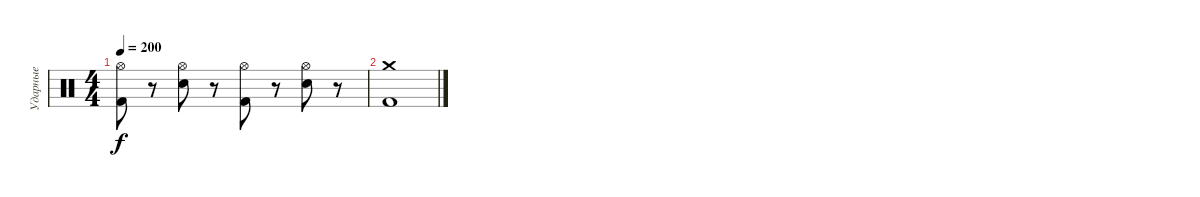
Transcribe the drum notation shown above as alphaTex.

\track ("Ударные" "Ударные") {instrument percussion}
\staff {score}
\articulation defaults
\ts (4 4)
\tempo 200
\clef neutral
\ks c
("Hi-Hat (open)" "Kick (hit) 2").8{dy f} r.8 ("Hi-Hat (open)" "Snare (hit) 2").8 r.8 ("Hi-Hat (open)" "Kick (hit) 2").8 r.8 ("Hi-Hat (open)" "Snare (hit) 2").8 r.8 |
("Crash medium (hit)" "Kick (hit) 2").1
